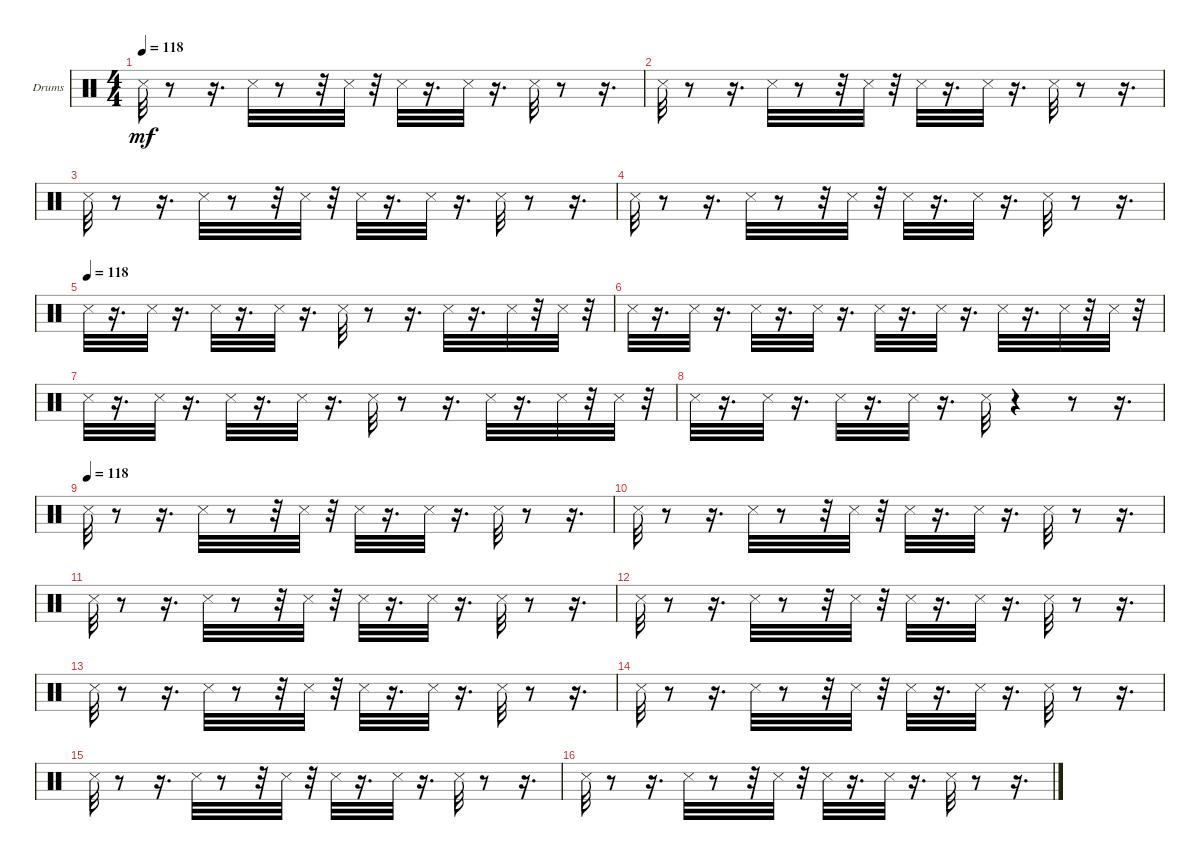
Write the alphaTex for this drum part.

\bracketExtendMode groupsimilarinstruments
\firstSystemTrackNameOrientation horizontal
\otherSystemsTrackNameOrientation horizontal
\track ("Drums" "Drums") {instrument percussion}
\staff {score}
\articulation defaults
\ts (4 4)
\tempo 118
\clef neutral
\ks c "Snare (side stick) 3".32{dy mf}
r.8 r.16{d} "Snare (side stick) 3".32 r.8 r.32 "Snare (side stick) 3".32 r.32 "Snare (side stick) 3".32 r.16{d} "Snare (side stick) 3".32 r.16{d} "Snare (side stick) 3".32 r.8 r.16{d} |
"Snare (side stick) 3".32 r.8 r.16{d} "Snare (side stick) 3".32 r.8 r.32 "Snare (side stick) 3".32 r.32 "Snare (side stick) 3".32 r.16{d} "Snare (side stick) 3".32 r.16{d} "Snare (side stick) 3".32 r.8 r.16{d} |
"Snare (side stick) 3".32 r.8 r.16{d} "Snare (side stick) 3".32 r.8 r.32 "Snare (side stick) 3".32 r.32 "Snare (side stick) 3".32 r.16{d} "Snare (side stick) 3".32 r.16{d} "Snare (side stick) 3".32 r.8 r.16{d} |
"Snare (side stick) 3".32 r.8 r.16{d} "Snare (side stick) 3".32 r.8 r.32 "Snare (side stick) 3".32 r.32 "Snare (side stick) 3".32 r.16{d} "Snare (side stick) 3".32 r.16{d} "Snare (side stick) 3".32 r.8 r.16{d} |
\tempo (118)
"Snare (side stick) 3".32 r.16{d} "Snare (side stick) 3".32 r.16{d} "Snare (side stick) 3".32 r.16{d} "Snare (side stick) 3".32 r.16{d} "Snare (side stick) 3".32 r.8 r.16{d} "Snare (side stick) 3".32 r.16{d} "Snare (side stick) 3".32 r.32 "Snare (side stick) 3".32 r.32 |
"Snare (side stick) 3".32 r.16{d} "Snare (side stick) 3".32 r.16{d} "Snare (side stick) 3".32 r.16{d} "Snare (side stick) 3".32 r.16{d} "Snare (side stick) 3".32 r.16{d} "Snare (side stick) 3".32 r.16{d} "Snare (side stick) 3".32 r.16{d} "Snare (side stick) 3".32 r.32 "Snare (side stick) 3".32 r.32 |
"Snare (side stick) 3".32 r.16{d} "Snare (side stick) 3".32 r.16{d} "Snare (side stick) 3".32 r.16{d} "Snare (side stick) 3".32 r.16{d} "Snare (side stick) 3".32 r.8 r.16{d} "Snare (side stick) 3".32 r.16{d} "Snare (side stick) 3".32 r.32 "Snare (side stick) 3".32 r.32 |
"Snare (side stick) 3".32 r.16{d} "Snare (side stick) 3".32 r.16{d} "Snare (side stick) 3".32 r.16{d} "Snare (side stick) 3".32 r.16{d} "Snare (side stick) 3".32 r.4 r.8 r.16{d} |
\tempo (118)
"Snare (side stick) 3".32 r.8 r.16{d} "Snare (side stick) 3".32 r.8 r.32 "Snare (side stick) 3".32 r.32 "Snare (side stick) 3".32 r.16{d} "Snare (side stick) 3".32 r.16{d} "Snare (side stick) 3".32 r.8 r.16{d} |
"Snare (side stick) 3".32 r.8 r.16{d} "Snare (side stick) 3".32 r.8 r.32 "Snare (side stick) 3".32 r.32 "Snare (side stick) 3".32 r.16{d} "Snare (side stick) 3".32 r.16{d} "Snare (side stick) 3".32 r.8 r.16{d} |
"Snare (side stick) 3".32 r.8 r.16{d} "Snare (side stick) 3".32 r.8 r.32 "Snare (side stick) 3".32 r.32 "Snare (side stick) 3".32 r.16{d} "Snare (side stick) 3".32 r.16{d} "Snare (side stick) 3".32 r.8 r.16{d} |
"Snare (side stick) 3".32 r.8 r.16{d} "Snare (side stick) 3".32 r.8 r.32 "Snare (side stick) 3".32 r.32 "Snare (side stick) 3".32 r.16{d} "Snare (side stick) 3".32 r.16{d} "Snare (side stick) 3".32 r.8 r.16{d} |
"Snare (side stick) 3".32 r.8 r.16{d} "Snare (side stick) 3".32 r.8 r.32 "Snare (side stick) 3".32 r.32 "Snare (side stick) 3".32 r.16{d} "Snare (side stick) 3".32 r.16{d} "Snare (side stick) 3".32 r.8 r.16{d} |
"Snare (side stick) 3".32 r.8 r.16{d} "Snare (side stick) 3".32 r.8 r.32 "Snare (side stick) 3".32 r.32 "Snare (side stick) 3".32 r.16{d} "Snare (side stick) 3".32 r.16{d} "Snare (side stick) 3".32 r.8 r.16{d} |
"Snare (side stick) 3".32 r.8 r.16{d} "Snare (side stick) 3".32 r.8 r.32 "Snare (side stick) 3".32 r.32 "Snare (side stick) 3".32 r.16{d} "Snare (side stick) 3".32 r.16{d} "Snare (side stick) 3".32 r.8 r.16{d} |
"Snare (side stick) 3".32 r.8 r.16{d} "Snare (side stick) 3".32 r.8 r.32 "Snare (side stick) 3".32 r.32 "Snare (side stick) 3".32 r.16{d} "Snare (side stick) 3".32 r.16{d} "Snare (side stick) 3".32 r.8 r.16{d}
